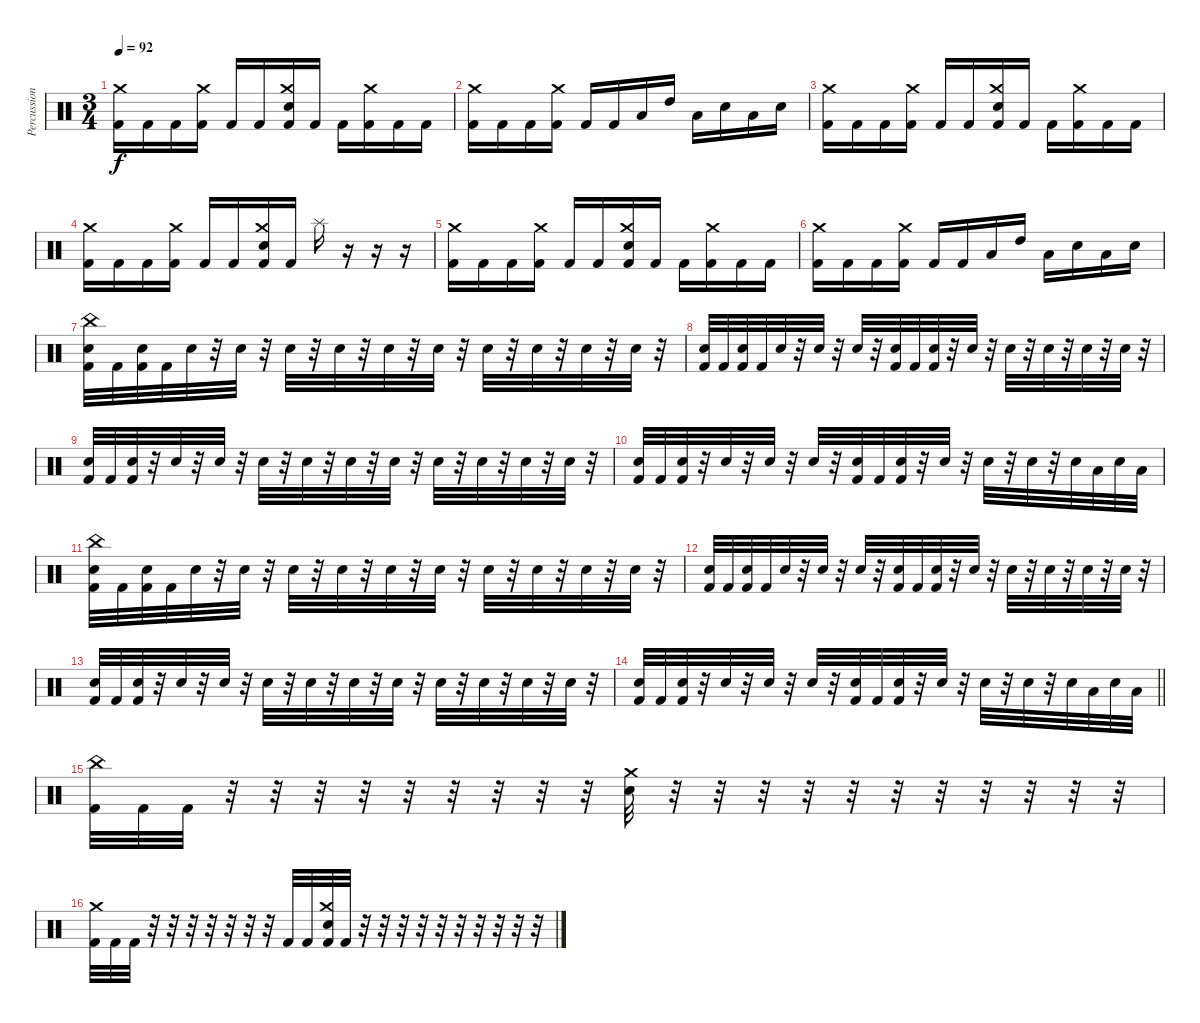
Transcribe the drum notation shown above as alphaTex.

\track ("Percussion [Optional]" "Percussion") {instrument percussion}
\staff {score}
\articulation defaults
\ts (3 4)
\tempo 92
\clef neutral
\ks c
("Kick (hit) 2" "Crash medium (hit)").16{dy f} "Kick (hit) 2".16 "Kick (hit) 2".16 ("Kick (hit) 2" "Crash medium (hit)").16 "Kick (hit) 2".16 "Kick (hit) 2".16 ("Kick (hit) 2" "Electric Snare (hit)" "Crash medium (hit)").16 "Kick (hit) 2".16 "Kick (hit) 2".16 ("Kick (hit) 2" "Crash medium (hit)").16 "Kick (hit) 2".16 "Kick (hit) 2".16 |
("Kick (hit) 2" "Crash medium (hit)").16 "Kick (hit) 2".16 "Kick (hit) 2".16 ("Kick (hit) 2" "Crash medium (hit)").16 "Kick (hit) 2".16 "Kick (hit) 2".16 "Low Tom (hit)".16 "High Tom (hit)".16 "Low Tom (hit)".16 "Electric Snare (hit)".16 "Low Tom (hit)".16 "Electric Snare (hit)".16 |
("Kick (hit) 2" "Crash medium (hit)").16 "Kick (hit) 2".16 "Kick (hit) 2".16 ("Kick (hit) 2" "Crash medium (hit)").16 "Kick (hit) 2".16 "Kick (hit) 2".16 ("Kick (hit) 2" "Electric Snare (hit)" "Crash medium (hit)").16 "Kick (hit) 2".16 "Kick (hit) 2".16 ("Kick (hit) 2" "Crash medium (hit)").16 "Kick (hit) 2".16 "Kick (hit) 2".16 |
("Kick (hit) 2" "Crash medium (hit)").16 "Kick (hit) 2".16 "Kick (hit) 2".16 ("Kick (hit) 2" "Crash medium (hit)").16 "Kick (hit) 2".16 "Kick (hit) 2".16 ("Kick (hit) 2" "Electric Snare (hit)" "Crash medium (hit)").16 "Kick (hit) 2".16 "Splash (hit)".16 r.16 r.16 r.16 |
("Kick (hit) 2" "Crash medium (hit)").16 "Kick (hit) 2".16 "Kick (hit) 2".16 ("Kick (hit) 2" "Crash medium (hit)").16 "Kick (hit) 2".16 "Kick (hit) 2".16 ("Kick (hit) 2" "Electric Snare (hit)" "Crash medium (hit)").16 "Kick (hit) 2".16 "Kick (hit) 2".16 ("Kick (hit) 2" "Crash medium (hit)").16 "Kick (hit) 2".16 "Kick (hit) 2".16 |
("Kick (hit) 2" "Crash medium (hit)").16 "Kick (hit) 2".16 "Kick (hit) 2".16 ("Kick (hit) 2" "Crash medium (hit)").16 "Kick (hit) 2".16 "Kick (hit) 2".16 "Low Tom (hit)".16 "High Tom (hit)".16 "Low Tom (hit)".16 "Electric Snare (hit)".16 "Low Tom (hit)".16 "Electric Snare (hit)".16 |
("Kick (hit) 2" "Electric Snare (hit)" "China (hit)").32 "Kick (hit) 2".32 ("Kick (hit) 2" "Electric Snare (hit)").32 "Kick (hit) 2".32 "Electric Snare (hit)".32 r.32 "Electric Snare (hit)".32 r.32 "Electric Snare (hit)".32 r.32 "Electric Snare (hit)".32 r.32 "Electric Snare (hit)".32 r.32 "Electric Snare (hit)".32 r.32 "Electric Snare (hit)".32 r.32 "Electric Snare (hit)".32 r.32 "Electric Snare (hit)".32 r.32 "Electric Snare (hit)".32 r.32 |
("Kick (hit) 2" "Electric Snare (hit)").32 "Kick (hit) 2".32 ("Kick (hit) 2" "Electric Snare (hit)").32 "Kick (hit) 2".32 "Electric Snare (hit)".32 r.32 "Electric Snare (hit)".32 r.32 "Electric Snare (hit)".32 r.32 ("Kick (hit) 2" "Electric Snare (hit)").32 "Kick (hit) 2".32 ("Kick (hit) 2" "Electric Snare (hit)").32 r.32 "Electric Snare (hit)".32 r.32 "Electric Snare (hit)".32 r.32 "Electric Snare (hit)".32 r.32 "Electric Snare (hit)".32 r.32 "Electric Snare (hit)".32 r.32 |
("Kick (hit) 2" "Electric Snare (hit)").32 "Kick (hit) 2".32 ("Kick (hit) 2" "Electric Snare (hit)").32 r.32 "Electric Snare (hit)".32 r.32 "Electric Snare (hit)".32 r.32 "Electric Snare (hit)".32 r.32 "Electric Snare (hit)".32 r.32 "Electric Snare (hit)".32 r.32 "Electric Snare (hit)".32 r.32 "Electric Snare (hit)".32 r.32 "Electric Snare (hit)".32 r.32 "Electric Snare (hit)".32 r.32 "Electric Snare (hit)".32 r.32 |
("Kick (hit) 2" "Electric Snare (hit)").32 "Kick (hit) 2".32 ("Kick (hit) 2" "Electric Snare (hit)").32 r.32 "Electric Snare (hit)".32 r.32 "Electric Snare (hit)".32 r.32 "Electric Snare (hit)".32 r.32 ("Kick (hit) 2" "Electric Snare (hit)").32 "Kick (hit) 2".32 ("Kick (hit) 2" "Electric Snare (hit)").32 r.32 "Electric Snare (hit)".32 r.32 "Electric Snare (hit)".32 r.32 "Electric Snare (hit)".32 r.32 "Electric Snare (hit)".32 "Low Floor Tom (hit)".32 "Electric Snare (hit)".32 "Low Floor Tom (hit)".32 |
("Kick (hit) 2" "Electric Snare (hit)" "China (hit)").32 "Kick (hit) 2".32 ("Kick (hit) 2" "Electric Snare (hit)").32 "Kick (hit) 2".32 "Electric Snare (hit)".32 r.32 "Electric Snare (hit)".32 r.32 "Electric Snare (hit)".32 r.32 "Electric Snare (hit)".32 r.32 "Electric Snare (hit)".32 r.32 "Electric Snare (hit)".32 r.32 "Electric Snare (hit)".32 r.32 "Electric Snare (hit)".32 r.32 "Electric Snare (hit)".32 r.32 "Electric Snare (hit)".32 r.32 |
("Kick (hit) 2" "Electric Snare (hit)").32 "Kick (hit) 2".32 ("Kick (hit) 2" "Electric Snare (hit)").32 "Kick (hit) 2".32 "Electric Snare (hit)".32 r.32 "Electric Snare (hit)".32 r.32 "Electric Snare (hit)".32 r.32 ("Kick (hit) 2" "Electric Snare (hit)").32 "Kick (hit) 2".32 ("Kick (hit) 2" "Electric Snare (hit)").32 r.32 "Electric Snare (hit)".32 r.32 "Electric Snare (hit)".32 r.32 "Electric Snare (hit)".32 r.32 "Electric Snare (hit)".32 r.32 "Electric Snare (hit)".32 r.32 |
("Kick (hit) 2" "Electric Snare (hit)").32 "Kick (hit) 2".32 ("Kick (hit) 2" "Electric Snare (hit)").32 r.32 "Electric Snare (hit)".32 r.32 "Electric Snare (hit)".32 r.32 "Electric Snare (hit)".32 r.32 "Electric Snare (hit)".32 r.32 "Electric Snare (hit)".32 r.32 "Electric Snare (hit)".32 r.32 "Electric Snare (hit)".32 r.32 "Electric Snare (hit)".32 r.32 "Electric Snare (hit)".32 r.32 "Electric Snare (hit)".32 r.32 |
\barLineRight lightlight
("Kick (hit) 2" "Electric Snare (hit)").32 "Kick (hit) 2".32 ("Kick (hit) 2" "Electric Snare (hit)").32 r.32 "Electric Snare (hit)".32 r.32 "Electric Snare (hit)".32 r.32 "Electric Snare (hit)".32 r.32 ("Kick (hit) 2" "Electric Snare (hit)").32 "Kick (hit) 2".32 ("Kick (hit) 2" "Electric Snare (hit)").32 r.32 "Electric Snare (hit)".32 r.32 "Electric Snare (hit)".32 r.32 "Electric Snare (hit)".32 r.32 "Electric Snare (hit)".32 "Low Floor Tom (hit)".32 "Electric Snare (hit)".32 "Low Floor Tom (hit)".32 |
("China (hit)" "Kick (hit) 2").32 "Kick (hit) 2".32 "Kick (hit) 2".32 r.32 r.32 r.32 r.32 r.32 r.32 r.32 r.32 r.32 ("Crash medium (hit)" "Electric Snare (hit)").32 r.32 r.32 r.32 r.32 r.32 r.32 r.32 r.32 r.32 r.32 r.32 |
("Crash medium (hit)" "Kick (hit) 2").32 "Kick (hit) 2".32 "Kick (hit) 2".32 r.32 r.32 r.32 r.32 r.32 r.32 r.32 "Kick (hit) 2".32 "Kick (hit) 2".32 ("Crash medium (hit)" "Electric Snare (hit)" "Kick (hit) 2").32 "Kick (hit) 2".32 r.32 r.32 r.32 r.32 r.32 r.32 r.32 r.32 r.32 r.32
